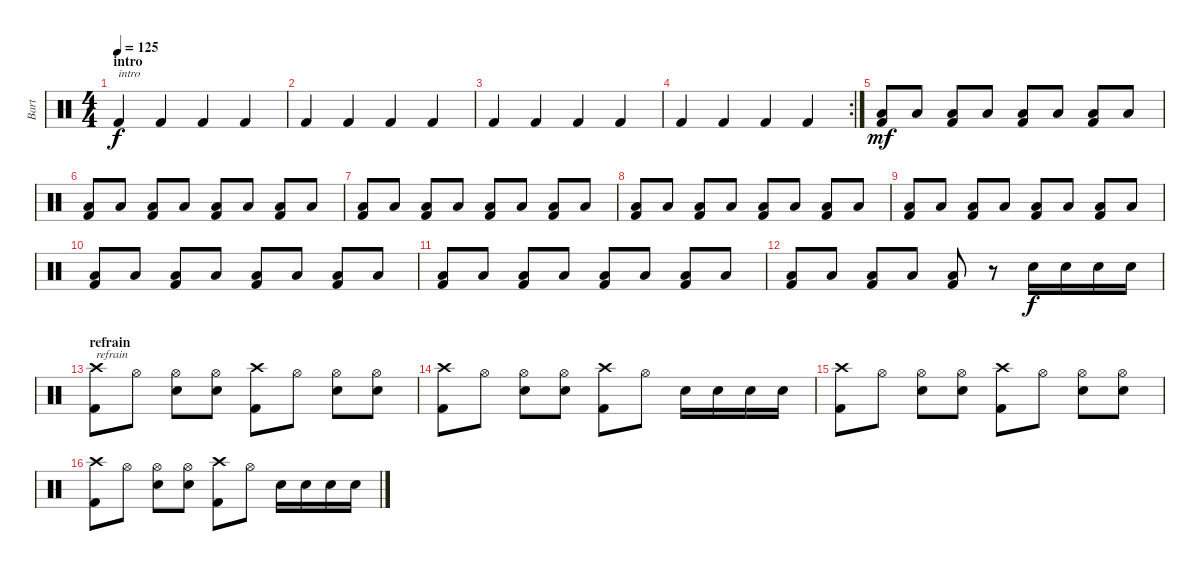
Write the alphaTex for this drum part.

\track ("Bart" "Bart") {instrument percussion}
\staff {score}
\articulation defaults
\ts (4 4)
\section ("" "intro")
\tempo 125
\clef neutral
\ks c "Kick (hit) 2".4{txt "intro" dy f} "Kick (hit) 2".4 "Kick (hit) 2".4 "Kick (hit) 2".4
|
"Kick (hit) 2".4 "Kick (hit) 2".4 "Kick (hit) 2".4 "Kick (hit) 2".4 |
"Kick (hit) 2".4 "Kick (hit) 2".4 "Kick (hit) 2".4 "Kick (hit) 2".4 |
\rc 2 "Kick (hit) 2".4 "Kick (hit) 2".4 "Kick (hit) 2".4 "Kick (hit) 2".4
|
("Low Floor Tom (hit)" "Kick (hit) 2").8{dy mf} "Low Floor Tom (hit)".8 ("Low Floor Tom (hit)" "Kick (hit) 2").8 "Low Floor Tom (hit)".8 ("Low Floor Tom (hit)" "Kick (hit) 2").8 "Low Floor Tom (hit)".8 ("Low Floor Tom (hit)" "Kick (hit) 2").8 "Low Floor Tom (hit)".8 |
("Low Floor Tom (hit)" "Kick (hit) 2").8 "Low Floor Tom (hit)".8 ("Low Floor Tom (hit)" "Kick (hit) 2").8 "Low Floor Tom (hit)".8 ("Low Floor Tom (hit)" "Kick (hit) 2").8 "Low Floor Tom (hit)".8 ("Low Floor Tom (hit)" "Kick (hit) 2").8 "Low Floor Tom (hit)".8 |
("Low Floor Tom (hit)" "Kick (hit) 2").8 "Low Floor Tom (hit)".8 ("Low Floor Tom (hit)" "Kick (hit) 2").8 "Low Floor Tom (hit)".8 ("Low Floor Tom (hit)" "Kick (hit) 2").8 "Low Floor Tom (hit)".8 ("Low Floor Tom (hit)" "Kick (hit) 2").8 "Low Floor Tom (hit)".8 |
("Low Floor Tom (hit)" "Kick (hit) 2").8 "Low Floor Tom (hit)".8 ("Low Floor Tom (hit)" "Kick (hit) 2").8 "Low Floor Tom (hit)".8 ("Low Floor Tom (hit)" "Kick (hit) 2").8 "Low Floor Tom (hit)".8 ("Low Floor Tom (hit)" "Kick (hit) 2").8 "Low Floor Tom (hit)".8 |
("Low Floor Tom (hit)" "Kick (hit) 2").8 "Low Floor Tom (hit)".8 ("Low Floor Tom (hit)" "Kick (hit) 2").8 "Low Floor Tom (hit)".8 ("Low Floor Tom (hit)" "Kick (hit) 2").8 "Low Floor Tom (hit)".8 ("Low Floor Tom (hit)" "Kick (hit) 2").8 "Low Floor Tom (hit)".8 |
("Low Floor Tom (hit)" "Kick (hit) 2").8 "Low Floor Tom (hit)".8 ("Low Floor Tom (hit)" "Kick (hit) 2").8 "Low Floor Tom (hit)".8 ("Low Floor Tom (hit)" "Kick (hit) 2").8 "Low Floor Tom (hit)".8 ("Low Floor Tom (hit)" "Kick (hit) 2").8 "Low Floor Tom (hit)".8 |
("Low Floor Tom (hit)" "Kick (hit) 2").8 "Low Floor Tom (hit)".8 ("Low Floor Tom (hit)" "Kick (hit) 2").8 "Low Floor Tom (hit)".8 ("Low Floor Tom (hit)" "Kick (hit) 2").8 "Low Floor Tom (hit)".8 ("Low Floor Tom (hit)" "Kick (hit) 2").8 "Low Floor Tom (hit)".8 |
("Low Floor Tom (hit)" "Kick (hit) 2").8 "Low Floor Tom (hit)".8 ("Low Floor Tom (hit)" "Kick (hit) 2").8 "Low Floor Tom (hit)".8 ("Low Floor Tom (hit)" "Kick (hit) 2").8 r.8 "Snare (hit) 2".16{dy f} "Snare (hit) 2".16 "Snare (hit) 2".16 "Snare (hit) 2".16 |
\section ("" "refrain")
("Crash high (hit)" "Kick (hit) 2").8{txt "refrain"} "Hi-Hat (open)".8 ("Hi-Hat (open)" "Snare (hit) 2").8 ("Hi-Hat (open)" "Snare (hit) 2").8 ("Crash high (hit)" "Kick (hit) 2").8 "Hi-Hat (open)".8 ("Hi-Hat (open)" "Snare (hit) 2").8 ("Hi-Hat (open)" "Snare (hit) 2").8 |
("Crash high (hit)" "Kick (hit) 2").8 "Hi-Hat (open)".8 ("Hi-Hat (open)" "Snare (hit) 2").8 ("Hi-Hat (open)" "Snare (hit) 2").8 ("Crash high (hit)" "Kick (hit) 2").8 "Hi-Hat (open)".8 "Snare (hit) 2".16 "Snare (hit) 2".16 "Snare (hit) 2".16 "Snare (hit) 2".16 |
("Crash high (hit)" "Kick (hit) 2").8 "Hi-Hat (open)".8 ("Hi-Hat (open)" "Snare (hit) 2").8 ("Hi-Hat (open)" "Snare (hit) 2").8 ("Crash high (hit)" "Kick (hit) 2").8 "Hi-Hat (open)".8 ("Hi-Hat (open)" "Snare (hit) 2").8 ("Hi-Hat (open)" "Snare (hit) 2").8 |
("Crash high (hit)" "Kick (hit) 2").8 "Hi-Hat (open)".8 ("Hi-Hat (open)" "Snare (hit) 2").8 ("Hi-Hat (open)" "Snare (hit) 2").8 ("Crash high (hit)" "Kick (hit) 2").8 "Hi-Hat (open)".8 "Snare (hit) 2".16 "Snare (hit) 2".16 "Snare (hit) 2".16 "Snare (hit) 2".16
